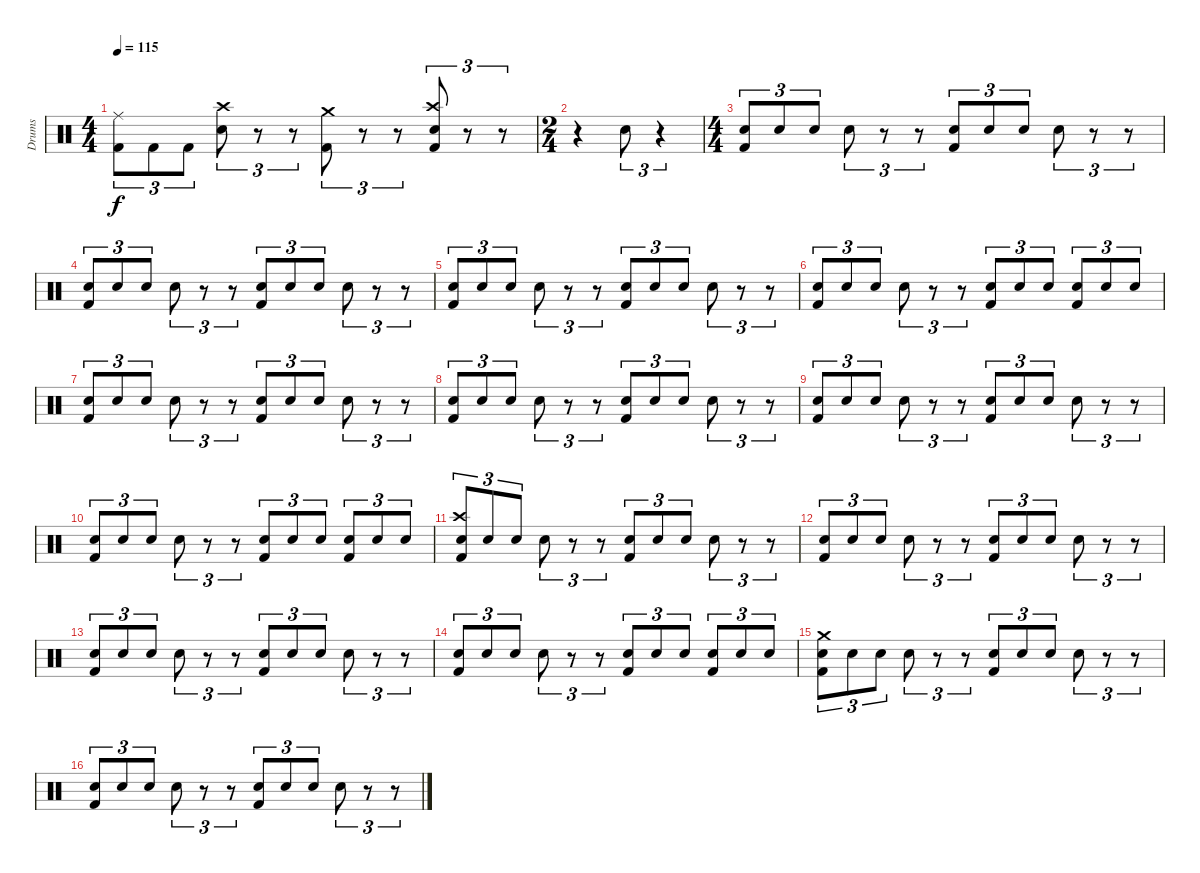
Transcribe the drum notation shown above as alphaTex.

\track ("Drums" "Drums") {instrument percussion}
\staff {score}
\articulation defaults
\ts (4 4)
\tempo 115
\clef neutral
\ks c
("Ride (middle)" "Kick (hit) 2").8{tu (3 2) dy f} "Kick (hit) 2".8{tu (3 2)} "Kick (hit) 2".8{tu (3 2)} ("Crash high (hit)" "Snare (hit) 2").8{tu (3 2)} r.8{tu (3 2)} r.8{tu (3 2)} ("Crash medium (hit)" "Kick (hit) 2").8{tu (3 2)} r.8{tu (3 2)} r.8{tu (3 2)} ("Crash high (hit)" "Snare (hit) 2" "Kick (hit) 2").8{tu (3 2)} r.8{tu (3 2)} r.8{tu (3 2)} |
\ts (2 4)
r.4 "Snare (hit) 2".8{tu (3 2)} r.4{tu (3 2)} |
\ts (4 4)
("Snare (hit) 2" "Kick (hit) 2").8{tu (3 2)} "Snare (hit) 2".8{tu (3 2)} "Snare (hit) 2".8{tu (3 2)} "Snare (hit) 2".8{tu (3 2)} r.8{tu (3 2)} r.8{tu (3 2)} ("Snare (hit) 2" "Kick (hit) 2").8{tu (3 2)} "Snare (hit) 2".8{tu (3 2)} "Snare (hit) 2".8{tu (3 2)} "Snare (hit) 2".8{tu (3 2)} r.8{tu (3 2)} r.8{tu (3 2)} |
("Snare (hit) 2" "Kick (hit) 2").8{tu (3 2)} "Snare (hit) 2".8{tu (3 2)} "Snare (hit) 2".8{tu (3 2)} "Snare (hit) 2".8{tu (3 2)} r.8{tu (3 2)} r.8{tu (3 2)} ("Snare (hit) 2" "Kick (hit) 2").8{tu (3 2)} "Snare (hit) 2".8{tu (3 2)} "Snare (hit) 2".8{tu (3 2)} "Snare (hit) 2".8{tu (3 2)} r.8{tu (3 2)} r.8{tu (3 2)} |
("Snare (hit) 2" "Kick (hit) 2").8{tu (3 2)} "Snare (hit) 2".8{tu (3 2)} "Snare (hit) 2".8{tu (3 2)} "Snare (hit) 2".8{tu (3 2)} r.8{tu (3 2)} r.8{tu (3 2)} ("Snare (hit) 2" "Kick (hit) 2").8{tu (3 2)} "Snare (hit) 2".8{tu (3 2)} "Snare (hit) 2".8{tu (3 2)} "Snare (hit) 2".8{tu (3 2)} r.8{tu (3 2)} r.8{tu (3 2)} |
("Snare (hit) 2" "Kick (hit) 2").8{tu (3 2)} "Snare (hit) 2".8{tu (3 2)} "Snare (hit) 2".8{tu (3 2)} "Snare (hit) 2".8{tu (3 2)} r.8{tu (3 2)} r.8{tu (3 2)} ("Snare (hit) 2" "Kick (hit) 2").8{tu (3 2)} "Snare (hit) 2".8{tu (3 2)} "Snare (hit) 2".8{tu (3 2)} ("Snare (hit) 2" "Kick (hit) 2").8{tu (3 2)} "Snare (hit) 2".8{tu (3 2)} "Snare (hit) 2".8{tu (3 2)} |
("Snare (hit) 2" "Kick (hit) 2").8{tu (3 2)} "Snare (hit) 2".8{tu (3 2)} "Snare (hit) 2".8{tu (3 2)} "Snare (hit) 2".8{tu (3 2)} r.8{tu (3 2)} r.8{tu (3 2)} ("Snare (hit) 2" "Kick (hit) 2").8{tu (3 2)} "Snare (hit) 2".8{tu (3 2)} "Snare (hit) 2".8{tu (3 2)} "Snare (hit) 2".8{tu (3 2)} r.8{tu (3 2)} r.8{tu (3 2)} |
("Snare (hit) 2" "Kick (hit) 2").8{tu (3 2)} "Snare (hit) 2".8{tu (3 2)} "Snare (hit) 2".8{tu (3 2)} "Snare (hit) 2".8{tu (3 2)} r.8{tu (3 2)} r.8{tu (3 2)} ("Snare (hit) 2" "Kick (hit) 2").8{tu (3 2)} "Snare (hit) 2".8{tu (3 2)} "Snare (hit) 2".8{tu (3 2)} "Snare (hit) 2".8{tu (3 2)} r.8{tu (3 2)} r.8{tu (3 2)} |
("Snare (hit) 2" "Kick (hit) 2").8{tu (3 2)} "Snare (hit) 2".8{tu (3 2)} "Snare (hit) 2".8{tu (3 2)} "Snare (hit) 2".8{tu (3 2)} r.8{tu (3 2)} r.8{tu (3 2)} ("Snare (hit) 2" "Kick (hit) 2").8{tu (3 2)} "Snare (hit) 2".8{tu (3 2)} "Snare (hit) 2".8{tu (3 2)} "Snare (hit) 2".8{tu (3 2)} r.8{tu (3 2)} r.8{tu (3 2)} |
("Snare (hit) 2" "Kick (hit) 2").8{tu (3 2)} "Snare (hit) 2".8{tu (3 2)} "Snare (hit) 2".8{tu (3 2)} "Snare (hit) 2".8{tu (3 2)} r.8{tu (3 2)} r.8{tu (3 2)} ("Snare (hit) 2" "Kick (hit) 2").8{tu (3 2)} "Snare (hit) 2".8{tu (3 2)} "Snare (hit) 2".8{tu (3 2)} ("Snare (hit) 2" "Kick (hit) 2").8{tu (3 2)} "Snare (hit) 2".8{tu (3 2)} "Snare (hit) 2".8{tu (3 2)} |
("Crash high (hit)" "Snare (hit) 2" "Kick (hit) 2").8{tu (3 2)} "Snare (hit) 2".8{tu (3 2)} "Snare (hit) 2".8{tu (3 2)} "Snare (hit) 2".8{tu (3 2)} r.8{tu (3 2)} r.8{tu (3 2)} ("Snare (hit) 2" "Kick (hit) 2").8{tu (3 2)} "Snare (hit) 2".8{tu (3 2)} "Snare (hit) 2".8{tu (3 2)} "Snare (hit) 2".8{tu (3 2)} r.8{tu (3 2)} r.8{tu (3 2)} |
("Snare (hit) 2" "Kick (hit) 2").8{tu (3 2)} "Snare (hit) 2".8{tu (3 2)} "Snare (hit) 2".8{tu (3 2)} "Snare (hit) 2".8{tu (3 2)} r.8{tu (3 2)} r.8{tu (3 2)} ("Snare (hit) 2" "Kick (hit) 2").8{tu (3 2)} "Snare (hit) 2".8{tu (3 2)} "Snare (hit) 2".8{tu (3 2)} "Snare (hit) 2".8{tu (3 2)} r.8{tu (3 2)} r.8{tu (3 2)} |
("Snare (hit) 2" "Kick (hit) 2").8{tu (3 2)} "Snare (hit) 2".8{tu (3 2)} "Snare (hit) 2".8{tu (3 2)} "Snare (hit) 2".8{tu (3 2)} r.8{tu (3 2)} r.8{tu (3 2)} ("Snare (hit) 2" "Kick (hit) 2").8{tu (3 2)} "Snare (hit) 2".8{tu (3 2)} "Snare (hit) 2".8{tu (3 2)} "Snare (hit) 2".8{tu (3 2)} r.8{tu (3 2)} r.8{tu (3 2)} |
("Snare (hit) 2" "Kick (hit) 2").8{tu (3 2)} "Snare (hit) 2".8{tu (3 2)} "Snare (hit) 2".8{tu (3 2)} "Snare (hit) 2".8{tu (3 2)} r.8{tu (3 2)} r.8{tu (3 2)} ("Snare (hit) 2" "Kick (hit) 2").8{tu (3 2)} "Snare (hit) 2".8{tu (3 2)} "Snare (hit) 2".8{tu (3 2)} ("Snare (hit) 2" "Kick (hit) 2").8{tu (3 2)} "Snare (hit) 2".8{tu (3 2)} "Snare (hit) 2".8{tu (3 2)} |
("Crash medium (hit)" "Snare (hit) 2" "Kick (hit) 2").8{tu (3 2)} "Snare (hit) 2".8{tu (3 2)} "Snare (hit) 2".8{tu (3 2)} "Snare (hit) 2".8{tu (3 2)} r.8{tu (3 2)} r.8{tu (3 2)} ("Snare (hit) 2" "Kick (hit) 2").8{tu (3 2)} "Snare (hit) 2".8{tu (3 2)} "Snare (hit) 2".8{tu (3 2)} "Snare (hit) 2".8{tu (3 2)} r.8{tu (3 2)} r.8{tu (3 2)} |
("Snare (hit) 2" "Kick (hit) 2").8{tu (3 2)} "Snare (hit) 2".8{tu (3 2)} "Snare (hit) 2".8{tu (3 2)} "Snare (hit) 2".8{tu (3 2)} r.8{tu (3 2)} r.8{tu (3 2)} ("Snare (hit) 2" "Kick (hit) 2").8{tu (3 2)} "Snare (hit) 2".8{tu (3 2)} "Snare (hit) 2".8{tu (3 2)} "Snare (hit) 2".8{tu (3 2)} r.8{tu (3 2)} r.8{tu (3 2)}
